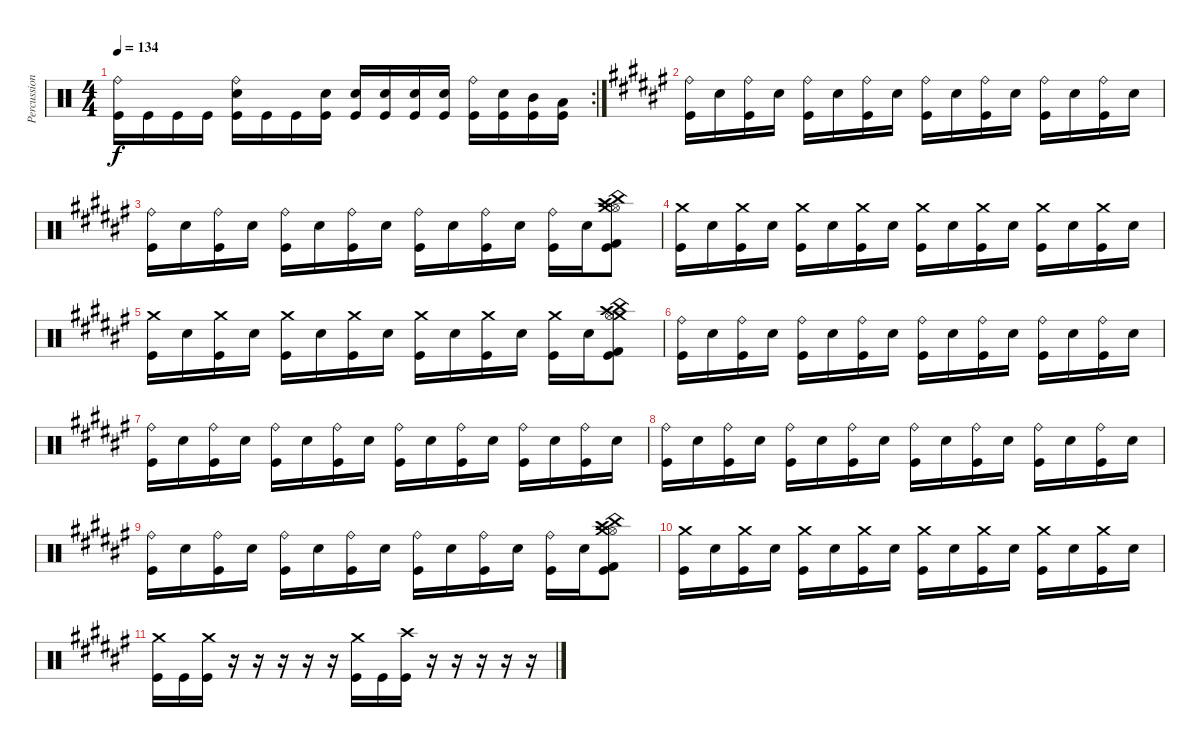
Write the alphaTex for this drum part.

\track ("Percussion" "Percussion") {instrument percussion}
\staff {score}
\articulation defaults
\rc 2
\ts (4 4)
\tempo 134
\clef neutral
\ks c
("Ride (bell)" "Kick (hit)").16{dy f} "Kick (hit)".16 "Kick (hit)".16 "Kick (hit)".16 ("Ride (bell)" "Electric Snare (hit)" "Kick (hit)").16 "Kick (hit)".16 "Kick (hit)".16 ("Electric Snare (hit)" "Kick (hit)").16 ("Electric Snare (hit)" "Kick (hit)").16 ("Electric Snare (hit)" "Kick (hit)").16 ("Electric Snare (hit)" "Kick (hit)").16 ("Electric Snare (hit)" "Kick (hit)").16 ("Ride (bell)" "Kick (hit)").16 ("Electric Snare (hit)" "Kick (hit)").16 ("Mid Tom (hit)" "Kick (hit)").16 ("Low Tom (hit)" "Kick (hit)").16 |
\ks f#
("Ride (bell)" "Kick (hit)").16 "Electric Snare (hit)".16 ("Ride (bell)" "Kick (hit)").16 "Electric Snare (hit)".16 ("Ride (bell)" "Kick (hit)").16 "Electric Snare (hit)".16 ("Ride (bell)" "Kick (hit)").16 "Electric Snare (hit)".16 ("Ride (bell)" "Kick (hit)").16 "Electric Snare (hit)".16 ("Ride (bell)" "Kick (hit)").16 "Electric Snare (hit)".16 ("Ride (bell)" "Kick (hit)").16 "Electric Snare (hit)".16 ("Ride (bell)" "Kick (hit)").16 "Electric Snare (hit)".16 |
("Ride (bell)" "Kick (hit)").16 "Electric Snare (hit)".16 ("Ride (bell)" "Kick (hit)").16 "Electric Snare (hit)".16 ("Ride (bell)" "Kick (hit)").16 "Electric Snare (hit)".16 ("Ride (bell)" "Kick (hit)").16 "Electric Snare (hit)".16 ("Ride (bell)" "Kick (hit)").16 "Electric Snare (hit)".16 ("Ride (bell)" "Kick (hit)").16 "Electric Snare (hit)".16 ("Ride (bell)" "Kick (hit)").16 "Electric Snare (hit)".16 ("Hi-Hat (open)" "China (hit)" "Crash medium (hit)" "Kick (hit) 2" "Crash high (hit)" "Kick (hit)").8 |
("Crash medium (hit)" "Kick (hit)").16 "Electric Snare (hit)".16 ("Crash medium (hit)" "Kick (hit)").16 "Electric Snare (hit)".16 ("Crash medium (hit)" "Kick (hit)").16 "Electric Snare (hit)".16 ("Crash medium (hit)" "Kick (hit)").16 "Electric Snare (hit)".16 ("Crash medium (hit)" "Kick (hit)").16 "Electric Snare (hit)".16 ("Crash medium (hit)" "Kick (hit)").16 "Electric Snare (hit)".16 ("Crash medium (hit)" "Kick (hit)").16 "Electric Snare (hit)".16 ("Crash medium (hit)" "Kick (hit)").16 "Electric Snare (hit)".16 |
("Crash medium (hit)" "Kick (hit)").16 "Electric Snare (hit)".16 ("Crash medium (hit)" "Kick (hit)").16 "Electric Snare (hit)".16 ("Crash medium (hit)" "Kick (hit)").16 "Electric Snare (hit)".16 ("Crash medium (hit)" "Kick (hit)").16 "Electric Snare (hit)".16 ("Crash medium (hit)" "Kick (hit)").16 "Electric Snare (hit)".16 ("Crash medium (hit)" "Kick (hit)").16 "Electric Snare (hit)".16 ("Crash medium (hit)" "Kick (hit)").16 "Electric Snare (hit)".16 ("China (hit)" "Crash high (hit)" "Crash medium (hit)" "Kick (hit) 2" "Hi-Hat (open)" "Kick (hit)").8 |
("Ride (bell)" "Kick (hit)").16 "Electric Snare (hit)".16 ("Ride (bell)" "Kick (hit)").16 "Electric Snare (hit)".16 ("Ride (bell)" "Kick (hit)").16 "Electric Snare (hit)".16 ("Ride (bell)" "Kick (hit)").16 "Electric Snare (hit)".16 ("Ride (bell)" "Kick (hit)").16 "Electric Snare (hit)".16 ("Ride (bell)" "Kick (hit)").16 "Electric Snare (hit)".16 ("Ride (bell)" "Kick (hit)").16 "Electric Snare (hit)".16 ("Ride (bell)" "Kick (hit)").16 "Electric Snare (hit)".16 |
("Ride (bell)" "Kick (hit)").16 "Electric Snare (hit)".16 ("Ride (bell)" "Kick (hit)").16 "Electric Snare (hit)".16 ("Ride (bell)" "Kick (hit)").16 "Electric Snare (hit)".16 ("Ride (bell)" "Kick (hit)").16 "Electric Snare (hit)".16 ("Ride (bell)" "Kick (hit)").16 "Electric Snare (hit)".16 ("Ride (bell)" "Kick (hit)").16 "Electric Snare (hit)".16 ("Ride (bell)" "Kick (hit)").16 "Electric Snare (hit)".16 ("Ride (bell)" "Kick (hit)").16 "Electric Snare (hit)".16 |
("Ride (bell)" "Kick (hit)").16 "Electric Snare (hit)".16 ("Ride (bell)" "Kick (hit)").16 "Electric Snare (hit)".16 ("Ride (bell)" "Kick (hit)").16 "Electric Snare (hit)".16 ("Ride (bell)" "Kick (hit)").16 "Electric Snare (hit)".16 ("Ride (bell)" "Kick (hit)").16 "Electric Snare (hit)".16 ("Ride (bell)" "Kick (hit)").16 "Electric Snare (hit)".16 ("Ride (bell)" "Kick (hit)").16 "Electric Snare (hit)".16 ("Ride (bell)" "Kick (hit)").16 "Electric Snare (hit)".16 |
("Ride (bell)" "Kick (hit)").16 "Electric Snare (hit)".16 ("Ride (bell)" "Kick (hit)").16 "Electric Snare (hit)".16 ("Ride (bell)" "Kick (hit)").16 "Electric Snare (hit)".16 ("Ride (bell)" "Kick (hit)").16 "Electric Snare (hit)".16 ("Ride (bell)" "Kick (hit)").16 "Electric Snare (hit)".16 ("Ride (bell)" "Kick (hit)").16 "Electric Snare (hit)".16 ("Ride (bell)" "Kick (hit)").16 "Electric Snare (hit)".16 ("Hi-Hat (open)" "China (hit)" "Crash medium (hit)" "Kick (hit) 2" "Crash high (hit)" "Kick (hit)").8 |
("Crash medium (hit)" "Kick (hit)").16 "Electric Snare (hit)".16 ("Crash medium (hit)" "Kick (hit)").16 "Electric Snare (hit)".16 ("Crash medium (hit)" "Kick (hit)").16 "Electric Snare (hit)".16 ("Crash medium (hit)" "Kick (hit)").16 "Electric Snare (hit)".16 ("Crash medium (hit)" "Kick (hit)").16 "Electric Snare (hit)".16 ("Crash medium (hit)" "Kick (hit)").16 "Electric Snare (hit)".16 ("Crash medium (hit)" "Kick (hit)").16 "Electric Snare (hit)".16 ("Crash medium (hit)" "Kick (hit)").16 "Electric Snare (hit)".16 |
("Crash medium (hit)" "Kick (hit)").16 "Kick (hit)".16 ("Crash medium (hit)" "Kick (hit)").16 r.16 r.16 r.16 r.16 r.16 ("Crash medium (hit)" "Kick (hit)").16 "Kick (hit)".16 ("Crash high (hit)" "Kick (hit)").16 r.16 r.16 r.16 r.16 r.16
